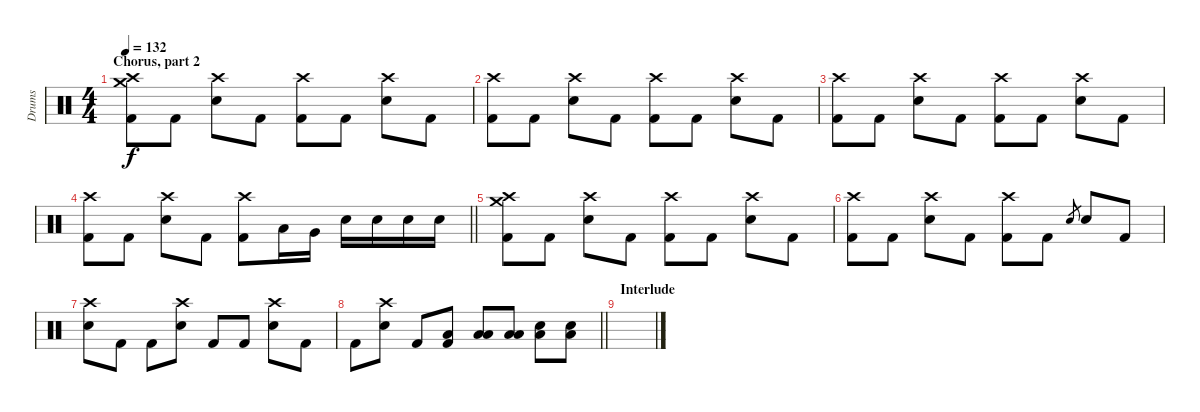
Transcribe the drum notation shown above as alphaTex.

\track ("Drums" "Drums") {instrument percussion}
\staff {score}
\articulation defaults
\ts (4 4)
\section ("" "Chorus, part 2")
\tempo 132
\clef neutral
\ks c
("Kick (hit) 2" "Crash medium (hit)" "Crash high (hit)").8{dy f} "Kick (hit) 2".8 ("Electric Snare (hit)" "Crash high (hit)").8 "Kick (hit) 2".8 ("Kick (hit) 2" "Crash high (hit)").8 "Kick (hit) 2".8 ("Electric Snare (hit)" "Crash high (hit)").8 "Kick (hit) 2".8 |
("Kick (hit) 2" "Crash high (hit)").8 "Kick (hit) 2".8 ("Electric Snare (hit)" "Crash high (hit)").8 "Kick (hit) 2".8 ("Kick (hit) 2" "Crash high (hit)").8 "Kick (hit) 2".8 ("Electric Snare (hit)" "Crash high (hit)").8 "Kick (hit) 2".8 |
("Kick (hit) 2" "Crash high (hit)").8 "Kick (hit) 2".8 ("Electric Snare (hit)" "Crash high (hit)").8 "Kick (hit) 2".8 ("Kick (hit) 2" "Crash high (hit)").8 "Kick (hit) 2".8 ("Electric Snare (hit)" "Crash high (hit)").8 "Kick (hit) 2".8 |
\barLineRight lightlight
("Kick (hit) 2" "Crash high (hit)").8 "Kick (hit) 2".8 ("Electric Snare (hit)" "Crash high (hit)").8 "Kick (hit) 2".8 ("Kick (hit) 2" "Crash high (hit)").8 "Low Tom (hit)".16 "Very Low Tom (hit)".16 "Electric Snare (hit)".16 "Electric Snare (hit)".16 "Electric Snare (hit)".16 "Electric Snare (hit)".16 |
("Kick (hit) 2" "Crash medium (hit)" "Crash high (hit)").8 "Kick (hit) 2".8 ("Electric Snare (hit)" "Crash high (hit)").8 "Kick (hit) 2".8 ("Kick (hit) 2" "Crash high (hit)").8 "Kick (hit) 2".8 ("Electric Snare (hit)" "Crash high (hit)").8 "Kick (hit) 2".8 |
("Kick (hit) 2" "Crash high (hit)").8 "Kick (hit) 2".8 ("Electric Snare (hit)" "Crash high (hit)").8 "Kick (hit) 2".8 ("Kick (hit) 2" "Crash high (hit)").8 "Kick (hit) 2".8 "Electric Snare (hit)".8{gr} "Electric Snare (hit)".8 "Kick (hit) 2".8 |
("Electric Snare (hit)" "Crash high (hit)").8 "Kick (hit) 2".8 "Kick (hit) 2".8 ("Electric Snare (hit)" "Crash high (hit)").8 "Kick (hit) 2".8 "Kick (hit) 2".8 ("Electric Snare (hit)" "Crash high (hit)").8 "Kick (hit) 2".8 |
\barLineRight lightlight "Kick (hit) 2".8
("Electric Snare (hit)" "Crash high (hit)").8 "Kick (hit) 2".8 ("Kick (hit) 2" "Low Floor Tom (hit)").8 ("Low Tom (hit)" "Low Floor Tom (hit)").8 ("Low Tom (hit)" "Low Floor Tom (hit)").8 ("Electric Snare (hit)" "Low Floor Tom (hit)").8 ("Electric Snare (hit)" "Low Floor Tom (hit)").8 |
\section ("" "Interlude")
